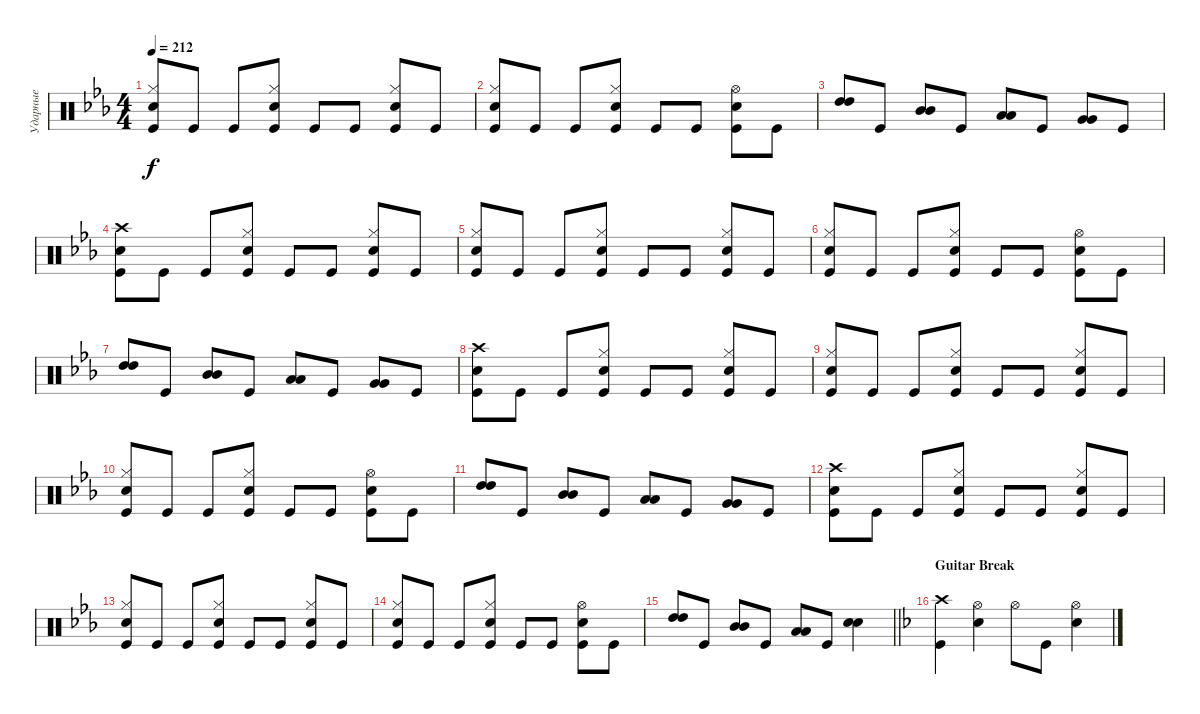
\track ("Ударные" "Ударные") {instrument percussion}
\staff {score}
\articulation defaults
\ts (4 4)
\tempo 212
\clef neutral
\ks cminor
("Snare (hit) 2" "Hi-Hat (closed)" "Kick (hit)").8{dy f} "Kick (hit)".8 "Kick (hit)".8 ("Snare (hit) 2" "Hi-Hat (closed)" "Kick (hit)").8 "Kick (hit)".8 "Kick (hit)".8 ("Snare (hit) 2" "Hi-Hat (closed)" "Kick (hit)").8 "Kick (hit)".8 |
("Snare (hit) 2" "Hi-Hat (closed)" "Kick (hit)").8 "Kick (hit)".8 "Kick (hit)".8 ("Snare (hit) 2" "Hi-Hat (closed)" "Kick (hit)").8 "Kick (hit)".8 "Kick (hit)".8 ("Snare (hit) 2" "Hi-Hat (open)" "Kick (hit)").8 "Kick (hit)".8 |
("High Tom (hit)" "High Tom (hit)").8{bd 240} "Kick (hit)".8 ("Mid Tom (hit)" "Mid Tom (hit)").8{bd 480} "Kick (hit)".8 ("Low Tom (hit)" "Low Tom (hit)").8{bd 480} "Kick (hit)".8 ("Very Low Tom (hit)" "Very Low Tom (hit)").8{bd 480} "Kick (hit)".8 |
("Snare (hit) 2" "Crash high (hit)" "Kick (hit)").8 "Kick (hit)".8 "Kick (hit)".8 ("Snare (hit) 2" "Hi-Hat (closed)" "Kick (hit)").8 "Kick (hit)".8 "Kick (hit)".8 ("Snare (hit) 2" "Hi-Hat (closed)" "Kick (hit)").8 "Kick (hit)".8 |
("Snare (hit) 2" "Hi-Hat (closed)" "Kick (hit)").8 "Kick (hit)".8 "Kick (hit)".8 ("Snare (hit) 2" "Hi-Hat (closed)" "Kick (hit)").8 "Kick (hit)".8 "Kick (hit)".8 ("Snare (hit) 2" "Hi-Hat (closed)" "Kick (hit)").8 "Kick (hit)".8 |
("Snare (hit) 2" "Hi-Hat (closed)" "Kick (hit)").8 "Kick (hit)".8 "Kick (hit)".8 ("Snare (hit) 2" "Hi-Hat (closed)" "Kick (hit)").8 "Kick (hit)".8 "Kick (hit)".8 ("Snare (hit) 2" "Hi-Hat (open)" "Kick (hit)").8 "Kick (hit)".8 |
("High Tom (hit)" "High Tom (hit)").8{bd 240} "Kick (hit)".8 ("Mid Tom (hit)" "Mid Tom (hit)").8{bd 480} "Kick (hit)".8 ("Low Tom (hit)" "Low Tom (hit)").8{bd 480} "Kick (hit)".8 ("Very Low Tom (hit)" "Very Low Tom (hit)").8{bd 480} "Kick (hit)".8 |
("Snare (hit) 2" "Crash high (hit)" "Kick (hit)").8 "Kick (hit)".8 "Kick (hit)".8 ("Snare (hit) 2" "Hi-Hat (closed)" "Kick (hit)").8 "Kick (hit)".8 "Kick (hit)".8 ("Snare (hit) 2" "Hi-Hat (closed)" "Kick (hit)").8 "Kick (hit)".8 |
("Snare (hit) 2" "Hi-Hat (closed)" "Kick (hit)").8 "Kick (hit)".8 "Kick (hit)".8 ("Snare (hit) 2" "Hi-Hat (closed)" "Kick (hit)").8 "Kick (hit)".8 "Kick (hit)".8 ("Snare (hit) 2" "Hi-Hat (closed)" "Kick (hit)").8 "Kick (hit)".8 |
("Snare (hit) 2" "Hi-Hat (closed)" "Kick (hit)").8 "Kick (hit)".8 "Kick (hit)".8 ("Snare (hit) 2" "Hi-Hat (closed)" "Kick (hit)").8 "Kick (hit)".8 "Kick (hit)".8 ("Snare (hit) 2" "Hi-Hat (open)" "Kick (hit)").8 "Kick (hit)".8 |
("High Tom (hit)" "High Tom (hit)").8{bd 240} "Kick (hit)".8 ("Mid Tom (hit)" "Mid Tom (hit)").8{bd 480} "Kick (hit)".8 ("Low Tom (hit)" "Low Tom (hit)").8{bd 480} "Kick (hit)".8 ("Very Low Tom (hit)" "Very Low Tom (hit)").8{bd 480} "Kick (hit)".8 |
("Snare (hit) 2" "Crash high (hit)" "Kick (hit)").8 "Kick (hit)".8 "Kick (hit)".8 ("Snare (hit) 2" "Hi-Hat (closed)" "Kick (hit)").8 "Kick (hit)".8 "Kick (hit)".8 ("Snare (hit) 2" "Hi-Hat (closed)" "Kick (hit)").8 "Kick (hit)".8 |
("Snare (hit) 2" "Hi-Hat (closed)" "Kick (hit)").8 "Kick (hit)".8 "Kick (hit)".8 ("Snare (hit) 2" "Hi-Hat (closed)" "Kick (hit)").8 "Kick (hit)".8 "Kick (hit)".8 ("Snare (hit) 2" "Hi-Hat (closed)" "Kick (hit)").8 "Kick (hit)".8 |
("Snare (hit) 2" "Hi-Hat (closed)" "Kick (hit)").8 "Kick (hit)".8 "Kick (hit)".8 ("Snare (hit) 2" "Hi-Hat (closed)" "Kick (hit)").8 "Kick (hit)".8 "Kick (hit)".8 ("Snare (hit) 2" "Hi-Hat (open)" "Kick (hit)").8 "Kick (hit)".8 |
\barLineRight lightlight
("High Tom (hit)" "High Tom (hit)").8{bd 240} "Kick (hit)".8 ("Mid Tom (hit)" "Mid Tom (hit)").8{bd 480} "Kick (hit)".8 ("Low Tom (hit)" "Low Tom (hit)").8{bd 480} "Kick (hit)".8 ("Snare (hit) 2" "Snare (hit) 2").4{bd 480} |
\section ("" "Guitar Break")
\ks dminor
("Kick (hit)" "Crash high (hit)").4 ("Snare (hit) 2" "Hi-Hat (open)").4 "Hi-Hat (open)".8 "Kick (hit)".8 ("Snare (hit) 2" "Hi-Hat (open)").4
